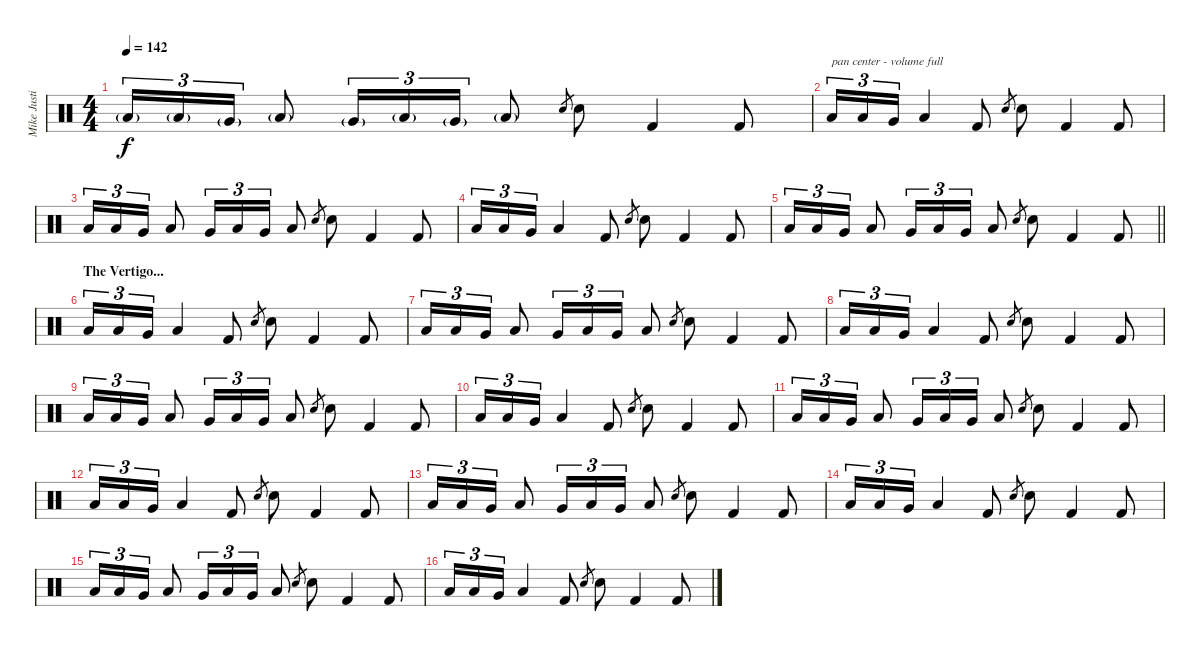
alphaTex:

\track ("Mike Justian" "Mike Justi") {instrument percussion}
\staff {score}
\articulation defaults
\ts (4 4)
\tempo 142
\clef neutral
\ks c "Low Floor Tom (hit)"{g}.16{tu (3 2) dy f} "Low Tom (hit)"{g}.16{tu (3 2)} "Very Low Tom (hit)"{g}.16{tu (3 2)} "Low Floor Tom (hit)"{g}.8 "Very Low Tom (hit)"{g}.16{tu (3 2)} "Low Tom (hit)"{g}.16{tu (3 2)} "Very Low Tom (hit)"{g}.16{tu (3 2)} "Low Floor Tom (hit)"{g}.8 "Electric Snare (hit)".8{gr} "Electric Snare (hit)".8 "Kick (hit) 2".4 "Kick (hit) 2".8
|
"Low Floor Tom (hit)".16{tu (3 2) txt "pan center - volume full" volume 16} "Low Tom (hit)".16{tu (3 2)} "Very Low Tom (hit)".16{tu (3 2)} "Low Floor Tom (hit)".4 "Kick (hit) 2".8 "Electric Snare (hit)".8{gr} "Electric Snare (hit)".8 "Kick (hit) 2".4 "Kick (hit) 2".8 |
"Low Floor Tom (hit)".16{tu (3 2)} "Low Tom (hit)".16{tu (3 2)} "Very Low Tom (hit)".16{tu (3 2)} "Low Floor Tom (hit)".8 "Very Low Tom (hit)".16{tu (3 2)} "Low Tom (hit)".16{tu (3 2)} "Very Low Tom (hit)".16{tu (3 2)} "Low Floor Tom (hit)".8 "Electric Snare (hit)".8{gr} "Electric Snare (hit)".8 "Kick (hit) 2".4 "Kick (hit) 2".8 |
"Low Floor Tom (hit)".16{tu (3 2)} "Low Tom (hit)".16{tu (3 2)} "Very Low Tom (hit)".16{tu (3 2)} "Low Floor Tom (hit)".4 "Kick (hit) 2".8 "Electric Snare (hit)".8{gr} "Electric Snare (hit)".8 "Kick (hit) 2".4 "Kick (hit) 2".8 |
\barLineRight lightlight "Low Floor Tom (hit)".16{tu (3 2)} "Low Tom (hit)".16{tu (3 2)} "Very Low Tom (hit)".16{tu (3 2)} "Low Floor Tom (hit)".8 "Very Low Tom (hit)".16{tu (3 2)} "Low Tom (hit)".16{tu (3 2)} "Very Low Tom (hit)".16{tu (3 2)} "Low Floor Tom (hit)".8 "Electric Snare (hit)".8{gr} "Electric Snare (hit)".8 "Kick (hit) 2".4 "Kick (hit) 2".8
|
\section ("" "The Vertigo...")
"Low Floor Tom (hit)".16{tu (3 2)} "Low Tom (hit)".16{tu (3 2)} "Very Low Tom (hit)".16{tu (3 2)} "Low Floor Tom (hit)".4 "Kick (hit) 2".8 "Electric Snare (hit)".8{gr} "Electric Snare (hit)".8 "Kick (hit) 2".4 "Kick (hit) 2".8 |
"Low Floor Tom (hit)".16{tu (3 2)} "Low Tom (hit)".16{tu (3 2)} "Very Low Tom (hit)".16{tu (3 2)} "Low Floor Tom (hit)".8 "Very Low Tom (hit)".16{tu (3 2)} "Low Tom (hit)".16{tu (3 2)} "Very Low Tom (hit)".16{tu (3 2)} "Low Floor Tom (hit)".8 "Electric Snare (hit)".8{gr} "Electric Snare (hit)".8 "Kick (hit) 2".4 "Kick (hit) 2".8 |
"Low Floor Tom (hit)".16{tu (3 2)} "Low Tom (hit)".16{tu (3 2)} "Very Low Tom (hit)".16{tu (3 2)} "Low Floor Tom (hit)".4 "Kick (hit) 2".8 "Electric Snare (hit)".8{gr} "Electric Snare (hit)".8 "Kick (hit) 2".4 "Kick (hit) 2".8 |
"Low Floor Tom (hit)".16{tu (3 2)} "Low Tom (hit)".16{tu (3 2)} "Very Low Tom (hit)".16{tu (3 2)} "Low Floor Tom (hit)".8 "Very Low Tom (hit)".16{tu (3 2)} "Low Tom (hit)".16{tu (3 2)} "Very Low Tom (hit)".16{tu (3 2)} "Low Floor Tom (hit)".8 "Electric Snare (hit)".8{gr} "Electric Snare (hit)".8 "Kick (hit) 2".4 "Kick (hit) 2".8 |
"Low Floor Tom (hit)".16{tu (3 2)} "Low Tom (hit)".16{tu (3 2)} "Very Low Tom (hit)".16{tu (3 2)} "Low Floor Tom (hit)".4 "Kick (hit) 2".8 "Electric Snare (hit)".8{gr} "Electric Snare (hit)".8 "Kick (hit) 2".4 "Kick (hit) 2".8 |
"Low Floor Tom (hit)".16{tu (3 2)} "Low Tom (hit)".16{tu (3 2)} "Very Low Tom (hit)".16{tu (3 2)} "Low Floor Tom (hit)".8 "Very Low Tom (hit)".16{tu (3 2)} "Low Tom (hit)".16{tu (3 2)} "Very Low Tom (hit)".16{tu (3 2)} "Low Floor Tom (hit)".8 "Electric Snare (hit)".8{gr} "Electric Snare (hit)".8 "Kick (hit) 2".4 "Kick (hit) 2".8 |
"Low Floor Tom (hit)".16{tu (3 2)} "Low Tom (hit)".16{tu (3 2)} "Very Low Tom (hit)".16{tu (3 2)} "Low Floor Tom (hit)".4 "Kick (hit) 2".8 "Electric Snare (hit)".8{gr} "Electric Snare (hit)".8 "Kick (hit) 2".4 "Kick (hit) 2".8 |
"Low Floor Tom (hit)".16{tu (3 2)} "Low Tom (hit)".16{tu (3 2)} "Very Low Tom (hit)".16{tu (3 2)} "Low Floor Tom (hit)".8 "Very Low Tom (hit)".16{tu (3 2)} "Low Tom (hit)".16{tu (3 2)} "Very Low Tom (hit)".16{tu (3 2)} "Low Floor Tom (hit)".8 "Electric Snare (hit)".8{gr} "Electric Snare (hit)".8 "Kick (hit) 2".4 "Kick (hit) 2".8 |
"Low Floor Tom (hit)".16{tu (3 2)} "Low Tom (hit)".16{tu (3 2)} "Very Low Tom (hit)".16{tu (3 2)} "Low Floor Tom (hit)".4 "Kick (hit) 2".8 "Electric Snare (hit)".8{gr} "Electric Snare (hit)".8 "Kick (hit) 2".4 "Kick (hit) 2".8 |
"Low Floor Tom (hit)".16{tu (3 2)} "Low Tom (hit)".16{tu (3 2)} "Very Low Tom (hit)".16{tu (3 2)} "Low Floor Tom (hit)".8 "Very Low Tom (hit)".16{tu (3 2)} "Low Tom (hit)".16{tu (3 2)} "Very Low Tom (hit)".16{tu (3 2)} "Low Floor Tom (hit)".8 "Electric Snare (hit)".8{gr} "Electric Snare (hit)".8 "Kick (hit) 2".4 "Kick (hit) 2".8 |
"Low Floor Tom (hit)".16{tu (3 2)} "Low Tom (hit)".16{tu (3 2)} "Very Low Tom (hit)".16{tu (3 2)} "Low Floor Tom (hit)".4 "Kick (hit) 2".8 "Electric Snare (hit)".8{gr} "Electric Snare (hit)".8 "Kick (hit) 2".4 "Kick (hit) 2".8
